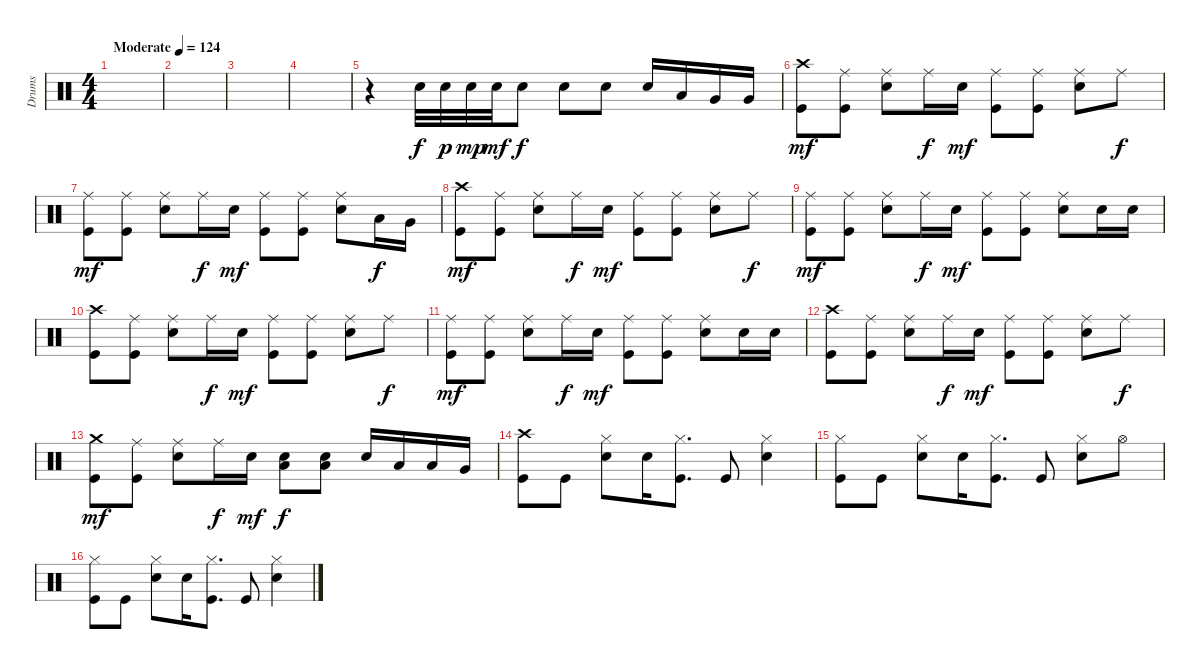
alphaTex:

\track ("Drums" "Drums") {instrument percussion}
\staff {score}
\articulation defaults
\ts (4 4)
\tempo (124 "Moderate")
\clef neutral
\ks c
|
|
|
|
r.4 "Electric Snare (hit)".32 "Electric Snare (hit)".32{dy p} "Electric Snare (hit)".32{dy mp} "Electric Snare (hit)".32{dy mf} "Electric Snare (hit)".8{dy f} "Electric Snare (hit)".8 "Electric Snare (hit)".8 "Electric Snare (hit)".16 "Low Tom (hit)".16 "Very Low Tom (hit)".16 "Very Low Tom (hit)".16 |
("Crash high (hit)" "Kick (hit)").8{dy mf} ("Ride (middle)" "Kick (hit)").8 ("Ride (middle)" "Electric Snare (hit)").8 "Ride (middle)".16{dy f} "Electric Snare (hit)".16{dy mf} ("Ride (middle)" "Kick (hit)").8 ("Ride (middle)" "Kick (hit)").8 ("Ride (middle)" "Electric Snare (hit)").8 "Ride (middle)".8{dy f} |
("Ride (middle)" "Kick (hit)").8{dy mf} ("Ride (middle)" "Kick (hit)").8 ("Ride (middle)" "Electric Snare (hit)").8 "Ride (middle)".16{dy f} "Electric Snare (hit)".16{dy mf} ("Ride (middle)" "Kick (hit)").8 ("Ride (middle)" "Kick (hit)").8 ("Ride (middle)" "Electric Snare (hit)").8 "Low Tom (hit)".16{dy f} "Very Low Tom (hit)".16 |
("Crash high (hit)" "Kick (hit)").8{dy mf} ("Ride (middle)" "Kick (hit)").8 ("Ride (middle)" "Electric Snare (hit)").8 "Ride (middle)".16{dy f} "Electric Snare (hit)".16{dy mf} ("Ride (middle)" "Kick (hit)").8 ("Ride (middle)" "Kick (hit)").8 ("Ride (middle)" "Electric Snare (hit)").8 "Ride (middle)".8{dy f} |
("Ride (middle)" "Kick (hit)").8{dy mf} ("Ride (middle)" "Kick (hit)").8 ("Ride (middle)" "Electric Snare (hit)").8 "Ride (middle)".16{dy f} "Electric Snare (hit)".16{dy mf} ("Ride (middle)" "Kick (hit)").8 ("Ride (middle)" "Kick (hit)").8 ("Ride (middle)" "Electric Snare (hit)").8 "Electric Snare (hit)".16 "Electric Snare (hit)".16 |
("Crash high (hit)" "Kick (hit)").8 ("Ride (middle)" "Kick (hit)").8 ("Ride (middle)" "Electric Snare (hit)").8 "Ride (middle)".16{dy f} "Electric Snare (hit)".16{dy mf} ("Ride (middle)" "Kick (hit)").8 ("Ride (middle)" "Kick (hit)").8 ("Ride (middle)" "Electric Snare (hit)").8 "Ride (middle)".8{dy f} |
("Ride (middle)" "Kick (hit)").8{dy mf} ("Ride (middle)" "Kick (hit)").8 ("Ride (middle)" "Electric Snare (hit)").8 "Ride (middle)".16{dy f} "Electric Snare (hit)".16{dy mf} ("Ride (middle)" "Kick (hit)").8 ("Ride (middle)" "Kick (hit)").8 ("Ride (middle)" "Electric Snare (hit)").8 "Electric Snare (hit)".16 "Electric Snare (hit)".16 |
("Crash high (hit)" "Kick (hit)").8 ("Ride (middle)" "Kick (hit)").8 ("Ride (middle)" "Electric Snare (hit)").8 "Ride (middle)".16{dy f} "Electric Snare (hit)".16{dy mf} ("Ride (middle)" "Kick (hit)").8 ("Ride (middle)" "Kick (hit)").8 ("Ride (middle)" "Electric Snare (hit)").8 "Ride (middle)".8{dy f} |
("Crash medium (hit)" "Kick (hit)").8{dy mf} ("Ride (middle)" "Kick (hit)").8 ("Ride (middle)" "Electric Snare (hit)").8 "Ride (middle)".16{dy f} "Electric Snare (hit)".16{dy mf} ("Low Tom (hit)" "Electric Snare (hit)").8{dy f} ("Low Tom (hit)" "Electric Snare (hit)").8 "Electric Snare (hit)".16 "Low Tom (hit)".16 "Low Tom (hit)".16 "Very Low Tom (hit)".16 |
("Crash high (hit)" "Kick (hit)").8 "Kick (hit)".8 ("Hi-Hat (closed)" "Electric Snare (hit)").8 "Electric Snare (hit)".16 ("Hi-Hat (closed)" "Kick (hit)").8{d} "Kick (hit)".8 ("Hi-Hat (closed)" "Electric Snare (hit)").4 |
("Hi-Hat (closed)" "Kick (hit)").8 "Kick (hit)".8 ("Hi-Hat (closed)" "Electric Snare (hit)").8 "Electric Snare (hit)".16 ("Hi-Hat (closed)" "Kick (hit)").8{d} "Kick (hit)".8 ("Hi-Hat (closed)" "Electric Snare (hit)").8 "Hi-Hat (open)".8 |
("Hi-Hat (closed)" "Kick (hit)").8 "Kick (hit)".8 ("Hi-Hat (closed)" "Electric Snare (hit)").8 "Electric Snare (hit)".16 ("Hi-Hat (closed)" "Kick (hit)").8{d} "Kick (hit)".8 ("Hi-Hat (closed)" "Electric Snare (hit)").4
